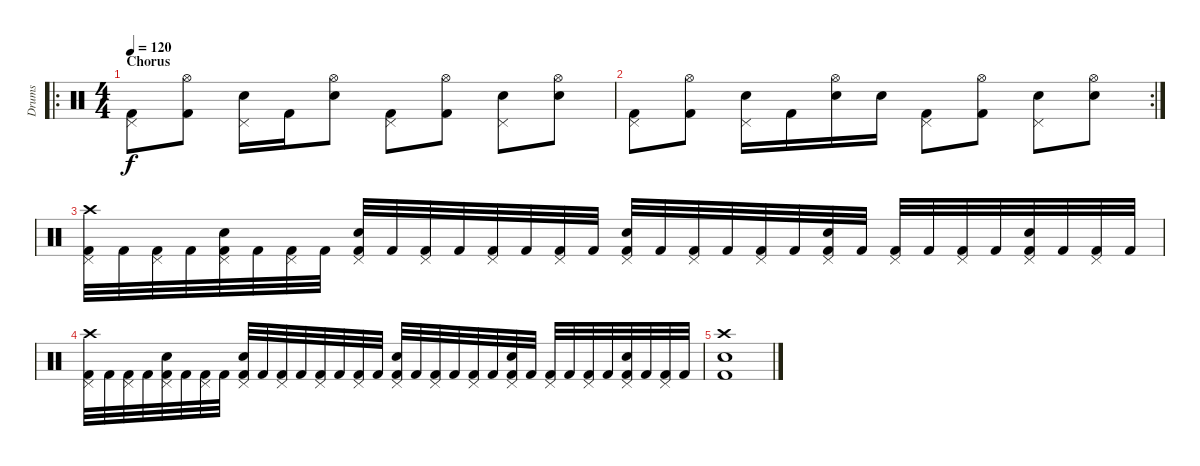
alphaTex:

\track ("Drums" "Drums") {instrument percussion}
\staff {score}
\articulation defaults
\ro
\ts (4 4)
\section ("" "Chorus")
\tempo 120
\clef neutral
\ks c
("Pedal Hi-Hat (hit)" "Kick (hit) 2").8{dy f} ("Hi-Hat (open)" "Kick (hit) 2").8 ("Pedal Hi-Hat (hit)" "Electric Snare (hit)").16 "Kick (hit) 2".16 ("Hi-Hat (open)" "Electric Snare (hit)").8 ("Pedal Hi-Hat (hit)" "Kick (hit) 2").8 ("Hi-Hat (open)" "Kick (hit) 2").8 ("Pedal Hi-Hat (hit)" "Electric Snare (hit)").8 ("Hi-Hat (open)" "Electric Snare (hit)").8 |
\rc 2
("Pedal Hi-Hat (hit)" "Kick (hit) 2").8 ("Hi-Hat (open)" "Kick (hit) 2").8 ("Pedal Hi-Hat (hit)" "Electric Snare (hit)").16 "Kick (hit) 2".16 ("Hi-Hat (open)" "Electric Snare (hit)").16 "Electric Snare (hit)".16 ("Pedal Hi-Hat (hit)" "Kick (hit) 2").8 ("Hi-Hat (open)" "Kick (hit) 2").8 ("Pedal Hi-Hat (hit)" "Electric Snare (hit)").8 ("Hi-Hat (open)" "Electric Snare (hit)").8 |
("Crash high (hit)" "Pedal Hi-Hat (hit)" "Kick (hit) 2").32 "Kick (hit) 2".32 ("Pedal Hi-Hat (hit)" "Kick (hit) 2").32 "Kick (hit) 2".32 ("Pedal Hi-Hat (hit)" "Electric Snare (hit)" "Kick (hit) 2").32 "Kick (hit) 2".32 ("Pedal Hi-Hat (hit)" "Kick (hit) 2").32 "Kick (hit) 2".32 ("Pedal Hi-Hat (hit)" "Electric Snare (hit)" "Kick (hit) 2").32 "Kick (hit) 2".32 ("Pedal Hi-Hat (hit)" "Kick (hit) 2").32 "Kick (hit) 2".32 ("Pedal Hi-Hat (hit)" "Kick (hit) 2").32 "Kick (hit) 2".32 ("Pedal Hi-Hat (hit)" "Kick (hit) 2").32 "Kick (hit) 2".32 ("Pedal Hi-Hat (hit)" "Electric Snare (hit)" "Kick (hit) 2").32 "Kick (hit) 2".32 ("Pedal Hi-Hat (hit)" "Kick (hit) 2").32 "Kick (hit) 2".32 ("Pedal Hi-Hat (hit)" "Kick (hit) 2").32 "Kick (hit) 2".32 ("Pedal Hi-Hat (hit)" "Electric Snare (hit)" "Kick (hit) 2").32 "Kick (hit) 2".32 ("Pedal Hi-Hat (hit)" "Kick (hit) 2").32 "Kick (hit) 2".32 ("Pedal Hi-Hat (hit)" "Kick (hit) 2").32 "Kick (hit) 2".32 ("Pedal Hi-Hat (hit)" "Electric Snare (hit)" "Kick (hit) 2").32 "Kick (hit) 2".32 ("Pedal Hi-Hat (hit)" "Kick (hit) 2").32 "Kick (hit) 2".32 |
("Crash high (hit)" "Pedal Hi-Hat (hit)" "Kick (hit) 2").32 "Kick (hit) 2".32 ("Pedal Hi-Hat (hit)" "Kick (hit) 2").32 "Kick (hit) 2".32 ("Pedal Hi-Hat (hit)" "Electric Snare (hit)" "Kick (hit) 2").32 "Kick (hit) 2".32 ("Pedal Hi-Hat (hit)" "Kick (hit) 2").32 "Kick (hit) 2".32 ("Pedal Hi-Hat (hit)" "Electric Snare (hit)" "Kick (hit) 2").32 "Kick (hit) 2".32 ("Pedal Hi-Hat (hit)" "Kick (hit) 2").32 "Kick (hit) 2".32 ("Pedal Hi-Hat (hit)" "Kick (hit) 2").32 "Kick (hit) 2".32 ("Pedal Hi-Hat (hit)" "Kick (hit) 2").32 "Kick (hit) 2".32 ("Pedal Hi-Hat (hit)" "Electric Snare (hit)" "Kick (hit) 2").32 "Kick (hit) 2".32 ("Pedal Hi-Hat (hit)" "Kick (hit) 2").32 "Kick (hit) 2".32 ("Pedal Hi-Hat (hit)" "Kick (hit) 2").32 "Kick (hit) 2".32 ("Pedal Hi-Hat (hit)" "Electric Snare (hit)" "Kick (hit) 2").32 "Kick (hit) 2".32 ("Pedal Hi-Hat (hit)" "Kick (hit) 2").32 "Kick (hit) 2".32 ("Pedal Hi-Hat (hit)" "Kick (hit) 2").32 "Kick (hit) 2".32 ("Pedal Hi-Hat (hit)" "Electric Snare (hit)" "Kick (hit) 2").32 "Kick (hit) 2".32 ("Pedal Hi-Hat (hit)" "Kick (hit) 2").32 "Kick (hit) 2".32 |
("Crash high (hit)" "Electric Snare (hit)" "Kick (hit) 2").1
